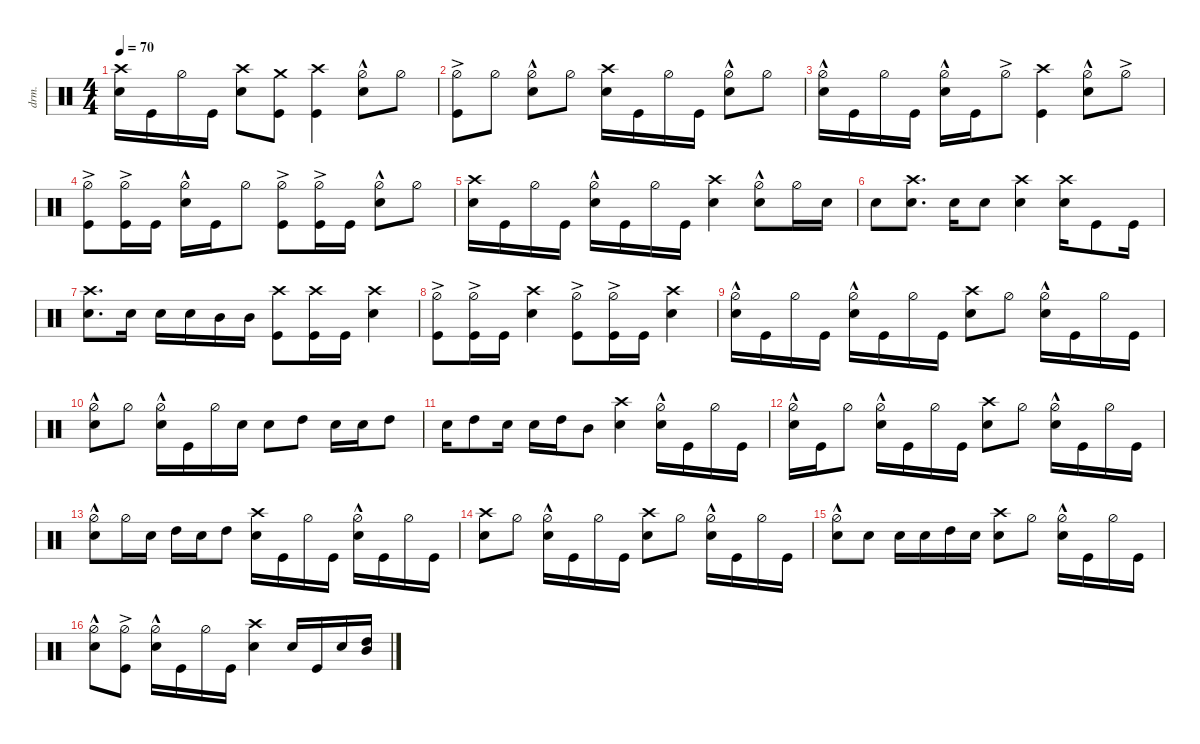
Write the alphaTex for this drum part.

\defaultSystemsLayout 4
\hideDynamics
\bracketExtendMode nobrackets
\otherSystemsTrackNameOrientation horizontal
\track ("Drums" "drm.") {defaultSystemsLayout 4 multiBarRest instrument percussion}
\staff {score}
\articulation defaults
\ts (4 4)
\tempo 70
\clef neutral
\ks c
("Snare (hit) 2" "Crash high (hit)").16{dy f} "Kick (hit)".16 "Hi-Hat (half)".16 "Kick (hit)".16 ("Snare (hit) 2" "Crash high (hit)").8 ("Kick (hit)" "Crash medium (hit)").8 ("Kick (hit)" "Crash high (hit)").4 ("Snare (hit) 2" "Hi-Hat (half)"{hac}).8 "Hi-Hat (half)".8 |
("Kick (hit)" "Hi-Hat (half)"{ac}).8 "Hi-Hat (half)".8 ("Hi-Hat (half)"{hac} "Snare (hit) 2").8 "Hi-Hat (half)".8 ("Snare (hit) 2" "Crash high (hit)").16 "Kick (hit)".16 "Hi-Hat (half)".16 "Kick (hit)".16 ("Snare (hit) 2" "Hi-Hat (half)"{hac}).8 "Hi-Hat (half)".8 |
("Snare (hit) 2" "Hi-Hat (half)"{hac}).16 "Kick (hit)".16 "Hi-Hat (half)".16 "Kick (hit)".16 ("Snare (hit) 2" "Hi-Hat (half)"{hac}).16 "Kick (hit)".16 "Hi-Hat (half)"{ac}.8 ("Kick (hit)" "Crash high (hit)").4 ("Snare (hit) 2" "Hi-Hat (half)"{hac}).8 "Hi-Hat (half)"{ac}.8 |
("Hi-Hat (half)"{ac} "Kick (hit)").8 ("Hi-Hat (half)"{ac} "Kick (hit)").16 "Kick (hit)".16 ("Snare (hit) 2" "Hi-Hat (half)"{hac}).16 "Kick (hit)".16 "Hi-Hat (half)".8 ("Hi-Hat (half)"{ac} "Kick (hit)").8 ("Hi-Hat (half)"{ac} "Kick (hit)").16 "Kick (hit)".16 ("Snare (hit) 2" "Hi-Hat (half)"{hac}).8 "Hi-Hat (half)".8 |
("Snare (hit) 2" "Crash high (hit)").16 "Kick (hit)".16 "Hi-Hat (half)".16 "Kick (hit)".16 ("Snare (hit) 2" "Hi-Hat (half)"{hac}).16 "Kick (hit)".16 "Hi-Hat (half)".16 "Kick (hit)".16 ("Snare (hit) 2" "Crash high (hit)").4 ("Snare (hit) 2" "Hi-Hat (half)"{hac}).8 "Hi-Hat (half)".16 "Snare (hit) 2".16 |
"Snare (hit) 2".8 ("Snare (hit) 2" "Crash high (hit)").8{d} "Snare (hit) 2".16 "Snare (hit) 2".8 ("Snare (hit) 2" "Crash high (hit)").4 ("Snare (hit) 2" "Crash high (hit)").16 "Kick (hit)".8 "Kick (hit)".16 |
("Snare (hit) 2" "Crash high (hit)").8{d} "Snare (hit) 2".16{dy mp} "Snare (hit) 2".16{dy f} "Snare (hit) 2".16 "Mid Tom (hit)".16 "Mid Tom (hit)".16 ("Crash high (hit)" "Kick (hit)").8 ("Kick (hit)" "Crash high (hit)").16 "Kick (hit)".16 ("Snare (hit) 2" "Crash high (hit)").4 |
("Kick (hit)" "Hi-Hat (half)"{ac}).8 ("Kick (hit)" "Hi-Hat (half)"{ac}).16 "Kick (hit)".16 ("Snare (hit) 2" "Crash high (hit)").4 ("Kick (hit)" "Hi-Hat (half)"{ac}).8 ("Kick (hit)" "Hi-Hat (half)"{ac}).16 "Kick (hit)".16 ("Snare (hit) 2" "Crash high (hit)").4 |
("Snare (hit) 2" "Hi-Hat (half)"{hac}).16 "Kick (hit)".16 "Hi-Hat (half)".16 "Kick (hit)".16 ("Snare (hit) 2" "Hi-Hat (half)"{hac}).16 "Kick (hit)".16 "Hi-Hat (half)".16 "Kick (hit)".16 ("Snare (hit) 2" "Crash high (hit)").8 "Hi-Hat (half)".8 ("Snare (hit) 2" "Hi-Hat (half)"{hac}).16 "Kick (hit)".16 "Hi-Hat (half)".16 "Kick (hit)".16 |
("Snare (hit) 2" "Hi-Hat (half)"{hac}).8 "Hi-Hat (half)".8 ("Snare (hit) 2" "Hi-Hat (half)"{hac}).16 "Kick (hit)".16 "Hi-Hat (half)".16 "Snare (hit) 2".16 "Snare (hit) 2".8 "High Tom (hit)".8{dy ff} "Snare (hit) 2".16{dy f} "Snare (hit) 2".16 "High Tom (hit)".8{dy ff} |
"Snare (hit) 2".16{dy f} "High Tom (hit)".8{dy ff} "Snare (hit) 2".16{dy f} "Snare (hit) 2".16 "High Tom (hit)".16{dy ff} "Mid Tom (hit)".8 ("Snare (hit) 2" "Crash high (hit)").4{dy f} ("Snare (hit) 2" "Hi-Hat (half)"{hac}).16 "Kick (hit)".16 "Hi-Hat (half)".16 "Kick (hit)".16 |
("Snare (hit) 2" "Hi-Hat (half)"{hac}).16 "Kick (hit)".16 "Hi-Hat (half)".8 ("Snare (hit) 2" "Hi-Hat (half)"{hac}).16 "Kick (hit)".16 "Hi-Hat (half)".16 "Kick (hit)".16 ("Snare (hit) 2" "Crash high (hit)").8 "Hi-Hat (half)".8 ("Snare (hit) 2" "Hi-Hat (half)"{hac}).16 "Kick (hit)".16 "Hi-Hat (half)".16 "Kick (hit)".16 |
("Snare (hit) 2" "Hi-Hat (half)"{hac}).8 "Hi-Hat (half)".16 "Snare (hit) 2".16 "High Tom (hit)".16{dy ff} "Snare (hit) 2".16{dy f} "High Tom (hit)".8{dy ff} ("Snare (hit) 2" "Crash high (hit)").16{dy f} "Kick (hit)".16 "Hi-Hat (half)".16 "Kick (hit)".16 ("Snare (hit) 2" "Hi-Hat (half)"{hac}).16 "Kick (hit)".16 "Hi-Hat (half)".16 "Kick (hit)".16 |
("Snare (hit) 2" "Crash high (hit)").8 "Hi-Hat (half)".8 ("Snare (hit) 2" "Hi-Hat (half)"{hac}).16 "Kick (hit)".16 "Hi-Hat (half)".16 "Kick (hit)".16 ("Snare (hit) 2" "Crash high (hit)").8 "Hi-Hat (half)".8 ("Snare (hit) 2" "Hi-Hat (half)"{hac}).16 "Kick (hit)".16 "Hi-Hat (half)".16 "Kick (hit)".16 |
("Snare (hit) 2" "Hi-Hat (half)"{hac}).8 "Snare (hit) 2".8 "Snare (hit) 2".16{dy mp} "Snare (hit) 2".16{dy f} "High Tom (hit)".16 "Snare (hit) 2".16 ("Snare (hit) 2" "Crash high (hit)").8 "Hi-Hat (half)".8 ("Snare (hit) 2" "Hi-Hat (half)"{hac}).16 "Kick (hit)".16 "Hi-Hat (half)".16 "Kick (hit)".16 |
("Snare (hit) 2" "Hi-Hat (half)"{hac}).8 ("Kick (hit)" "Hi-Hat (half)"{ac}).8 ("Snare (hit) 2" "Hi-Hat (half)"{hac}).16 "Kick (hit)".16 "Hi-Hat (half)".16 "Kick (hit)".16 ("Snare (hit) 2" "Crash high (hit)").4 "Snare (hit) 2".16 "Kick (hit)".16 "Snare (hit) 2".16 ("High Tom (hit)" "Mid Tom (hit)").16
